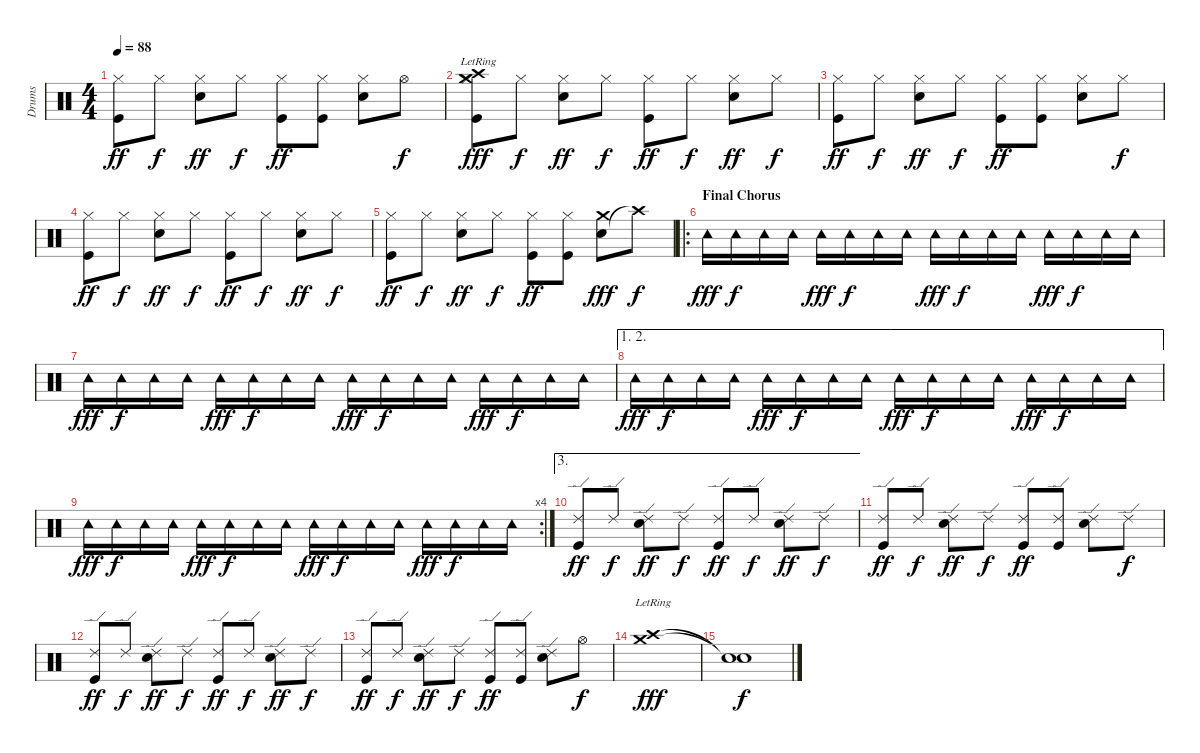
\track ("Drums" "Drums") {instrument percussion}
\staff {score}
\articulation defaults
\ts (4 4)
\tempo 88
\clef neutral
\ks c
("Hi-Hat (closed)" "Kick (hit)").8{dy ff} "Hi-Hat (closed)".8{dy f} ("Hi-Hat (closed)" "Snare (hit) 2").8{dy ff} "Hi-Hat (closed)".8{dy f} ("Hi-Hat (closed)" "Kick (hit)").8{dy ff} ("Hi-Hat (closed)" "Kick (hit)").8 ("Hi-Hat (closed)" "Snare (hit) 2").8 "Hi-Hat (open)".8{dy f} |
("Hi-Hat (closed)" "Kick (hit)" "Crash medium (hit)"{lr} "Crash high (hit)"{lr}).8{dy fff} "Hi-Hat (closed)".8{dy f} ("Hi-Hat (closed)" "Snare (hit) 2").8{dy ff} "Hi-Hat (closed)".8{dy f} ("Hi-Hat (closed)" "Kick (hit)").8{dy ff} "Hi-Hat (closed)".8{dy f} ("Hi-Hat (closed)" "Snare (hit) 2").8{dy ff} "Hi-Hat (closed)".8{dy f} |
("Hi-Hat (closed)" "Kick (hit)").8{dy ff} "Hi-Hat (closed)".8{dy f} ("Hi-Hat (closed)" "Snare (hit) 2").8{dy ff} "Hi-Hat (closed)".8{dy f} ("Hi-Hat (closed)" "Kick (hit)").8{dy ff} ("Hi-Hat (closed)" "Kick (hit)").8 ("Hi-Hat (closed)" "Snare (hit) 2").8 "Hi-Hat (closed)".8{dy f} |
("Hi-Hat (closed)" "Kick (hit)").8{dy ff} "Hi-Hat (closed)".8{dy f} ("Hi-Hat (closed)" "Snare (hit) 2").8{dy ff} "Hi-Hat (closed)".8{dy f} ("Hi-Hat (closed)" "Kick (hit)").8{dy ff} "Hi-Hat (closed)".8{dy f} ("Hi-Hat (closed)" "Snare (hit) 2").8{dy ff} "Hi-Hat (closed)".8{dy f} |
("Hi-Hat (closed)" "Kick (hit)").8{dy ff} "Hi-Hat (closed)".8{dy f} ("Hi-Hat (closed)" "Snare (hit) 2").8{dy ff} "Hi-Hat (closed)".8{dy f} ("Hi-Hat (closed)" "Kick (hit)").8{dy ff} ("Hi-Hat (closed)" "Kick (hit)").8 ("Snare (hit) 2" "Crash medium (hit)").8{dy fff} "Crash high (hit)"{t}.8{dy f} |
\ro
\section ("" "Final Chorus")
"Tambourine (hit)".16{dy fff} "Tambourine (hit)".16{dy f} "Tambourine (hit)".16 "Tambourine (hit)".16 "Tambourine (hit)".16{dy fff} "Tambourine (hit)".16{dy f} "Tambourine (hit)".16 "Tambourine (hit)".16 "Tambourine (hit)".16{dy fff} "Tambourine (hit)".16{dy f} "Tambourine (hit)".16 "Tambourine (hit)".16 "Tambourine (hit)".16{dy fff} "Tambourine (hit)".16{dy f} "Tambourine (hit)".16 "Tambourine (hit)".16 |
"Tambourine (hit)".16{dy fff} "Tambourine (hit)".16{dy f} "Tambourine (hit)".16 "Tambourine (hit)".16 "Tambourine (hit)".16{dy fff} "Tambourine (hit)".16{dy f} "Tambourine (hit)".16 "Tambourine (hit)".16 "Tambourine (hit)".16{dy fff} "Tambourine (hit)".16{dy f} "Tambourine (hit)".16 "Tambourine (hit)".16 "Tambourine (hit)".16{dy fff} "Tambourine (hit)".16{dy f} "Tambourine (hit)".16 "Tambourine (hit)".16 |
\ae (1 2)
"Tambourine (hit)".16{dy fff} "Tambourine (hit)".16{dy f} "Tambourine (hit)".16 "Tambourine (hit)".16 "Tambourine (hit)".16{dy fff} "Tambourine (hit)".16{dy f} "Tambourine (hit)".16 "Tambourine (hit)".16 "Tambourine (hit)".16{dy fff} "Tambourine (hit)".16{dy f} "Tambourine (hit)".16 "Tambourine (hit)".16 "Tambourine (hit)".16{dy fff} "Tambourine (hit)".16{dy f} "Tambourine (hit)".16 "Tambourine (hit)".16 |
\rc 4 "Tambourine (hit)".16{dy fff} "Tambourine (hit)".16{dy f} "Tambourine (hit)".16 "Tambourine (hit)".16 "Tambourine (hit)".16{dy fff} "Tambourine (hit)".16{dy f} "Tambourine (hit)".16 "Tambourine (hit)".16 "Tambourine (hit)".16{dy fff} "Tambourine (hit)".16{dy f} "Tambourine (hit)".16 "Tambourine (hit)".16 "Tambourine (hit)".16{dy fff} "Tambourine (hit)".16{dy f} "Tambourine (hit)".16 "Tambourine (hit)".16
|
\ae 3
("Ride (edge) 2" "Kick (hit)").8{dy ff} "Ride (edge) 2".8{dy f} ("Ride (edge) 2" "Snare (hit) 2").8{dy ff} "Ride (edge) 2".8{dy f} ("Ride (edge) 2" "Kick (hit)").8{dy ff} "Ride (edge) 2".8{dy f} ("Ride (edge) 2" "Snare (hit) 2").8{dy ff} "Ride (edge) 2".8{dy f} |
("Ride (edge) 2" "Kick (hit)").8{dy ff} "Ride (edge) 2".8{dy f} ("Ride (edge) 2" "Snare (hit) 2").8{dy ff} "Ride (edge) 2".8{dy f} ("Ride (edge) 2" "Kick (hit)").8{dy ff} ("Ride (edge) 2" "Kick (hit)").8 ("Ride (edge) 2" "Snare (hit) 2").8 "Ride (edge) 2".8{dy f} |
("Ride (edge) 2" "Kick (hit)").8{dy ff} "Ride (edge) 2".8{dy f} ("Ride (edge) 2" "Snare (hit) 2").8{dy ff} "Ride (edge) 2".8{dy f} ("Ride (edge) 2" "Kick (hit)").8{dy ff} "Ride (edge) 2".8{dy f} ("Ride (edge) 2" "Snare (hit) 2").8{dy ff} "Ride (edge) 2".8{dy f} |
("Ride (edge) 2" "Kick (hit)").8{dy ff} "Ride (edge) 2".8{dy f} ("Ride (edge) 2" "Snare (hit) 2").8{dy ff} "Ride (edge) 2".8{dy f} ("Ride (edge) 2" "Kick (hit)").8{dy ff} ("Ride (edge) 2" "Kick (hit)").8 ("Ride (edge) 2" "Snare (hit) 2").8 "Hi-Hat (open)".8{dy f} |
("Crash medium (hit)"{lr} "Crash high (hit)"{lr}).1{dy fff} |
("Snare (hit)"{t} "Snare (hit)"{t}).1{dy f}
